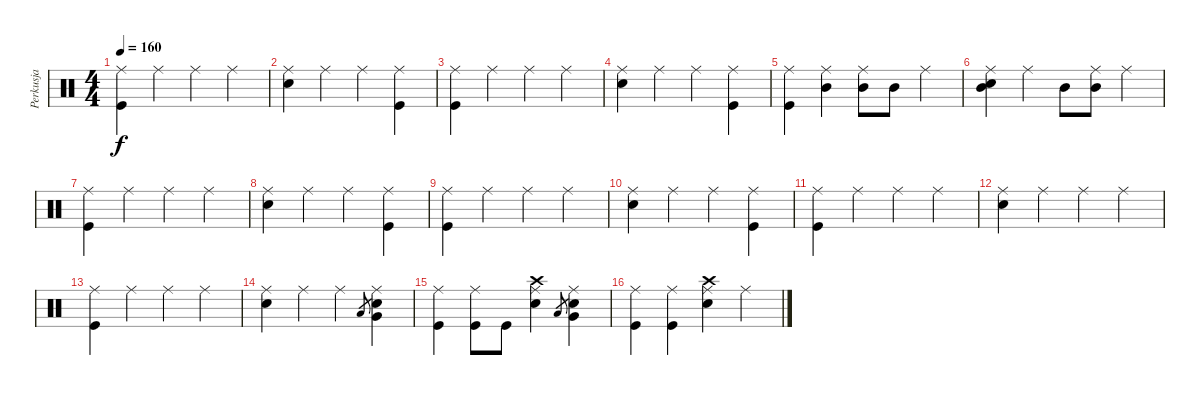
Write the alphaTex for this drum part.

\track ("Perkusja" "Perkusja") {instrument percussion}
\staff {score}
\articulation defaults
\ts (4 4)
\tempo 160
\clef neutral
\ks c
("Kick (hit)" "Ride (middle)").4{dy f} "Ride (middle)".4 "Ride (middle)".4 "Ride (middle)".4 |
("Snare (hit) 2" "Ride (middle)").4 "Ride (middle)".4 "Ride (middle)".4 ("Kick (hit)" "Ride (middle)").4 |
("Kick (hit)" "Ride (middle)").4 "Ride (middle)".4 "Ride (middle)".4 "Ride (middle)".4 |
("Snare (hit) 2" "Ride (middle)").4 "Ride (middle)".4 "Ride (middle)".4 ("Kick (hit)" "Ride (middle)").4 |
("Kick (hit)" "Ride (middle)").4 ("Mid Tom (hit)" "Ride (middle)").4 ("Mid Tom (hit)" "Ride (middle)").8 "Mid Tom (hit)".8 "Ride (middle)".4 |
("Snare (hit) 2" "Mid Tom (hit)" "Ride (middle)").4 "Ride (middle)".4 "Mid Tom (hit)".8 ("Mid Tom (hit)" "Ride (middle)").8 "Ride (middle)".4 |
("Kick (hit)" "Ride (middle)").4 "Ride (middle)".4 "Ride (middle)".4 "Ride (middle)".4 |
("Snare (hit) 2" "Ride (middle)").4 "Ride (middle)".4 "Ride (middle)".4 ("Kick (hit)" "Ride (middle)").4 |
("Kick (hit)" "Ride (middle)").4 "Ride (middle)".4 "Ride (middle)".4 "Ride (middle)".4 |
("Snare (hit) 2" "Ride (middle)").4 "Ride (middle)".4 "Ride (middle)".4 ("Kick (hit)" "Ride (middle)").4 |
("Kick (hit)" "Ride (middle)").4 "Ride (middle)".4 "Ride (middle)".4 "Ride (middle)".4 |
("Snare (hit) 2" "Ride (middle)").4 "Ride (middle)".4 "Ride (middle)".4 "Ride (middle)".4 |
("Kick (hit)" "Ride (middle)").4 "Ride (middle)".4 "Ride (middle)".4 "Ride (middle)".4 |
("Snare (hit) 2" "Ride (middle)").4 "Ride (middle)".4 "Ride (middle)".4 "Low Floor Tom (hit)".8{gr} ("Electric Snare (hit)" "Very Low Tom (hit)" "Ride (middle)").4 |
("Kick (hit)" "Ride (middle)").4 ("Kick (hit)" "Ride (middle)").8 "Kick (hit)".8 ("Snare (hit) 2" "Crash high (hit)" "Ride (middle)").4 "Low Floor Tom (hit)".8{gr} ("Electric Snare (hit)" "Very Low Tom (hit)" "Ride (middle)").4 |
("Kick (hit)" "Ride (middle)").4 ("Kick (hit)" "Ride (middle)").4 ("Snare (hit) 2" "Crash high (hit)" "Ride (middle)").4 "Ride (middle)".4
